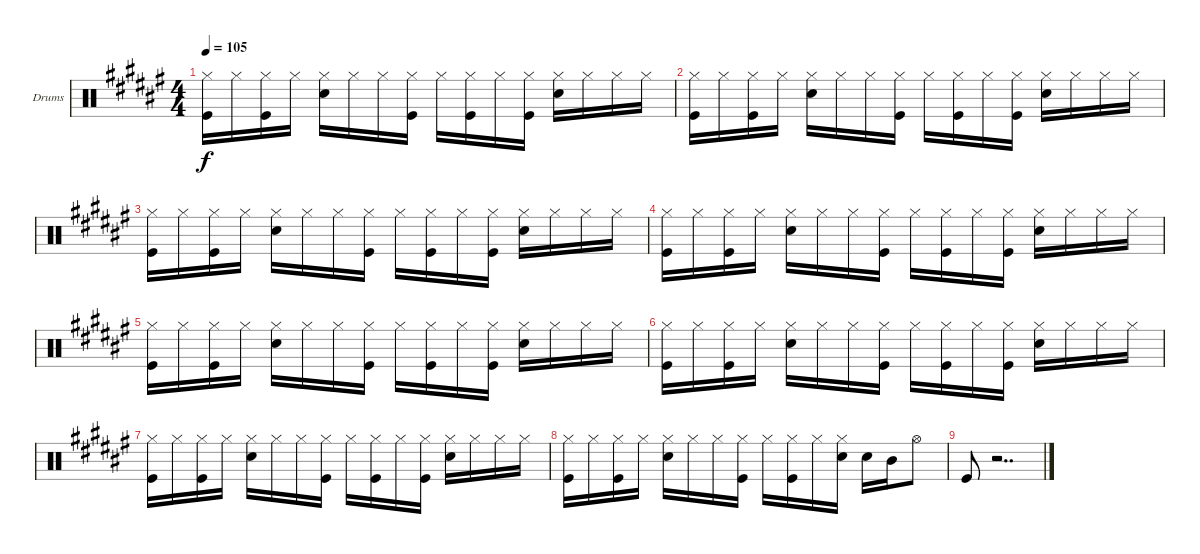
\bracketExtendMode groupsimilarinstruments
\firstSystemTrackNameOrientation horizontal
\otherSystemsTrackNameOrientation horizontal
\track ("Fab Moretti" "Drums") {instrument percussion}
\staff {score}
\articulation defaults
\ts (4 4)
\tempo 105
\clef neutral
\ks f#
("Hi-Hat (closed)" "Kick (hit)").16{dy f} "Hi-Hat (closed)".16 ("Hi-Hat (closed)" "Kick (hit)").16 "Hi-Hat (closed)".16 ("Snare (hit) 2" "Hi-Hat (closed)").16 "Hi-Hat (closed)".16 "Hi-Hat (closed)".16 ("Hi-Hat (closed)" "Kick (hit)").16 "Hi-Hat (closed)".16 ("Hi-Hat (closed)" "Kick (hit)").16 "Hi-Hat (closed)".16 ("Hi-Hat (closed)" "Kick (hit)").16 ("Snare (hit) 2" "Hi-Hat (closed)").16 "Hi-Hat (closed)".16 "Hi-Hat (closed)".16 "Hi-Hat (closed)".16 |
("Hi-Hat (closed)" "Kick (hit)").16 "Hi-Hat (closed)".16 ("Hi-Hat (closed)" "Kick (hit)").16 "Hi-Hat (closed)".16 ("Snare (hit) 2" "Hi-Hat (closed)").16 "Hi-Hat (closed)".16 "Hi-Hat (closed)".16 ("Hi-Hat (closed)" "Kick (hit)").16 "Hi-Hat (closed)".16 ("Hi-Hat (closed)" "Kick (hit)").16 "Hi-Hat (closed)".16 ("Hi-Hat (closed)" "Kick (hit)").16 ("Snare (hit) 2" "Hi-Hat (closed)").16 "Hi-Hat (closed)".16 "Hi-Hat (closed)".16 "Hi-Hat (closed)".16 |
("Hi-Hat (closed)" "Kick (hit)").16 "Hi-Hat (closed)".16 ("Hi-Hat (closed)" "Kick (hit)").16 "Hi-Hat (closed)".16 ("Snare (hit) 2" "Hi-Hat (closed)").16 "Hi-Hat (closed)".16 "Hi-Hat (closed)".16 ("Hi-Hat (closed)" "Kick (hit)").16 "Hi-Hat (closed)".16 ("Hi-Hat (closed)" "Kick (hit)").16 "Hi-Hat (closed)".16 ("Hi-Hat (closed)" "Kick (hit)").16 ("Snare (hit) 2" "Hi-Hat (closed)").16 "Hi-Hat (closed)".16 "Hi-Hat (closed)".16 "Hi-Hat (closed)".16 |
("Hi-Hat (closed)" "Kick (hit)").16 "Hi-Hat (closed)".16 ("Hi-Hat (closed)" "Kick (hit)").16 "Hi-Hat (closed)".16 ("Snare (hit) 2" "Hi-Hat (closed)").16 "Hi-Hat (closed)".16 "Hi-Hat (closed)".16 ("Hi-Hat (closed)" "Kick (hit)").16 "Hi-Hat (closed)".16 ("Hi-Hat (closed)" "Kick (hit)").16 "Hi-Hat (closed)".16 ("Hi-Hat (closed)" "Kick (hit)").16 ("Snare (hit) 2" "Hi-Hat (closed)").16 "Hi-Hat (closed)".16 "Hi-Hat (closed)".16 "Hi-Hat (closed)".16 |
("Hi-Hat (closed)" "Kick (hit)").16 "Hi-Hat (closed)".16 ("Hi-Hat (closed)" "Kick (hit)").16 "Hi-Hat (closed)".16 ("Snare (hit) 2" "Hi-Hat (closed)").16 "Hi-Hat (closed)".16 "Hi-Hat (closed)".16 ("Hi-Hat (closed)" "Kick (hit)").16 "Hi-Hat (closed)".16 ("Hi-Hat (closed)" "Kick (hit)").16 "Hi-Hat (closed)".16 ("Hi-Hat (closed)" "Kick (hit)").16 ("Snare (hit) 2" "Hi-Hat (closed)").16 "Hi-Hat (closed)".16 "Hi-Hat (closed)".16 "Hi-Hat (closed)".16 |
("Hi-Hat (closed)" "Kick (hit)").16 "Hi-Hat (closed)".16 ("Hi-Hat (closed)" "Kick (hit)").16 "Hi-Hat (closed)".16 ("Snare (hit) 2" "Hi-Hat (closed)").16 "Hi-Hat (closed)".16 "Hi-Hat (closed)".16 ("Hi-Hat (closed)" "Kick (hit)").16 "Hi-Hat (closed)".16 ("Hi-Hat (closed)" "Kick (hit)").16 "Hi-Hat (closed)".16 ("Hi-Hat (closed)" "Kick (hit)").16 ("Snare (hit) 2" "Hi-Hat (closed)").16 "Hi-Hat (closed)".16 "Hi-Hat (closed)".16 "Hi-Hat (closed)".16 |
("Hi-Hat (closed)" "Kick (hit)").16 "Hi-Hat (closed)".16 ("Hi-Hat (closed)" "Kick (hit)").16 "Hi-Hat (closed)".16 ("Snare (hit) 2" "Hi-Hat (closed)").16 "Hi-Hat (closed)".16 "Hi-Hat (closed)".16 ("Hi-Hat (closed)" "Kick (hit)").16 "Hi-Hat (closed)".16 ("Hi-Hat (closed)" "Kick (hit)").16 "Hi-Hat (closed)".16 ("Hi-Hat (closed)" "Kick (hit)").16 ("Snare (hit) 2" "Hi-Hat (closed)").16 "Hi-Hat (closed)".16 "Hi-Hat (closed)".16 "Hi-Hat (closed)".16 |
("Hi-Hat (closed)" "Kick (hit)").16 "Hi-Hat (closed)".16 ("Hi-Hat (closed)" "Kick (hit)").16 "Hi-Hat (closed)".16 ("Snare (hit) 2" "Hi-Hat (closed)").16 "Hi-Hat (closed)".16 "Hi-Hat (closed)".16 ("Hi-Hat (closed)" "Kick (hit)").16 "Hi-Hat (closed)".16 ("Hi-Hat (closed)" "Kick (hit)").16 "Hi-Hat (closed)".16 ("Hi-Hat (closed)" "Snare (hit) 2").16 "Snare (hit) 2".16 "Mid Tom (hit)".16 "Hi-Hat (open)".8 |
"Kick (hit)".8 r.2{dd}
